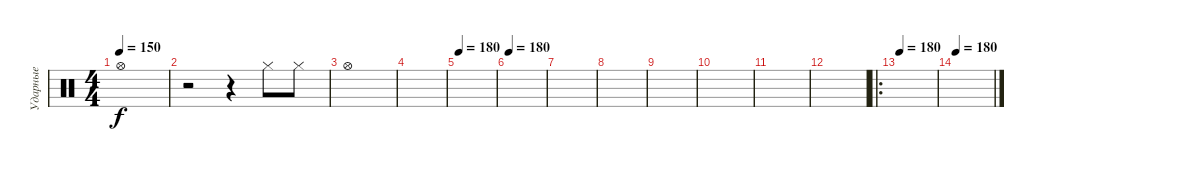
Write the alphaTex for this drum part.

\track ("Ударные" "Ударные") {instrument percussion}
\staff {score}
\articulation defaults
\ts (4 4)
\tempo 150
\clef neutral
\ks c "Hi-Hat (open)".1{dy f}
|
r.2 r.4 "Hi-Hat (closed)".8 "Hi-Hat (closed)".8 |
"Hi-Hat (open)".1 |
|
\tempo 180
|
\tempo 180
|
|
|
|
|
|
|
\ro
\tempo 180
|
\tempo 180
